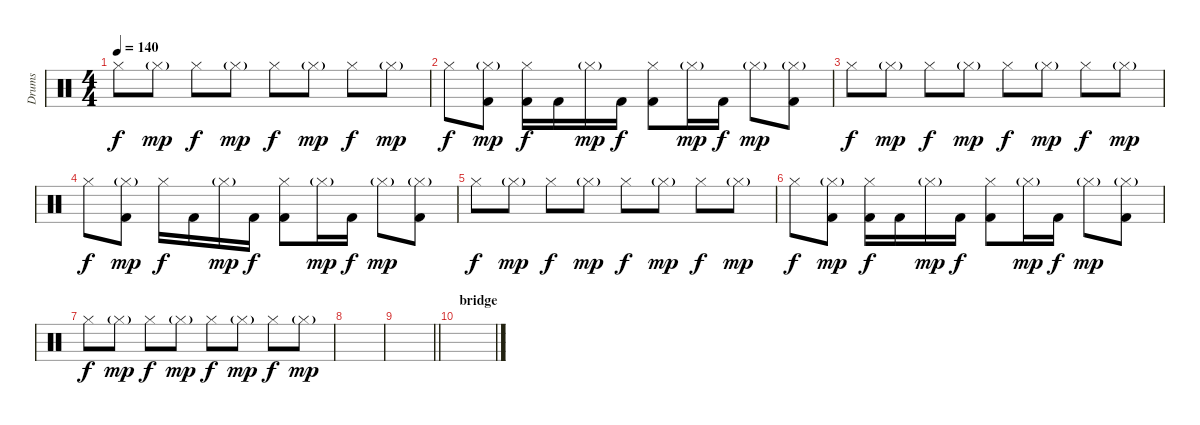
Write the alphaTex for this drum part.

\track ("Drums" "Drums") {instrument percussion}
\staff {score}
\articulation defaults
\ts (4 4)
\tempo 140
\clef neutral
\ks c "Hi-Hat (closed)".8{dy f} "Hi-Hat (closed)"{g}.8{dy mp} "Hi-Hat (closed)".8{dy f} "Hi-Hat (closed)"{g}.8{dy mp} "Hi-Hat (closed)".8{dy f} "Hi-Hat (closed)"{g}.8{dy mp} "Hi-Hat (closed)".8{dy f} "Hi-Hat (closed)"{g}.8{dy mp}
|
"Hi-Hat (closed)".8{dy f} ("Hi-Hat (closed)"{g} "Kick (hit) 2").8{dy mp} ("Hi-Hat (closed)" "Kick (hit) 2").16{dy f} "Kick (hit) 2".16 "Hi-Hat (closed)"{g}.16{dy mp} "Kick (hit) 2".16{dy f} ("Hi-Hat (closed)" "Kick (hit) 2").8 "Hi-Hat (closed)"{g}.16{dy mp} "Kick (hit) 2".16{dy f} "Hi-Hat (closed)"{g}.8{dy mp} ("Hi-Hat (closed)"{g} "Kick (hit) 2").8 |
"Hi-Hat (closed)".8{dy f} "Hi-Hat (closed)"{g}.8{dy mp} "Hi-Hat (closed)".8{dy f} "Hi-Hat (closed)"{g}.8{dy mp} "Hi-Hat (closed)".8{dy f} "Hi-Hat (closed)"{g}.8{dy mp} "Hi-Hat (closed)".8{dy f} "Hi-Hat (closed)"{g}.8{dy mp} |
"Hi-Hat (closed)".8{dy f} ("Hi-Hat (closed)"{g} "Kick (hit) 2").8{dy mp} "Hi-Hat (closed)".16{dy f} "Kick (hit) 2".16 "Hi-Hat (closed)"{g}.16{dy mp} "Kick (hit) 2".16{dy f} ("Hi-Hat (closed)" "Kick (hit) 2").8 "Hi-Hat (closed)"{g}.16{dy mp} "Kick (hit) 2".16{dy f} "Hi-Hat (closed)"{g}.8{dy mp} ("Hi-Hat (closed)"{g} "Kick (hit) 2").8 |
"Hi-Hat (closed)".8{dy f} "Hi-Hat (closed)"{g}.8{dy mp} "Hi-Hat (closed)".8{dy f} "Hi-Hat (closed)"{g}.8{dy mp} "Hi-Hat (closed)".8{dy f} "Hi-Hat (closed)"{g}.8{dy mp} "Hi-Hat (closed)".8{dy f} "Hi-Hat (closed)"{g}.8{dy mp} |
"Hi-Hat (closed)".8{dy f} ("Hi-Hat (closed)"{g} "Kick (hit) 2").8{dy mp} ("Hi-Hat (closed)" "Kick (hit) 2").16{dy f} "Kick (hit) 2".16 "Hi-Hat (closed)"{g}.16{dy mp} "Kick (hit) 2".16{dy f} ("Hi-Hat (closed)" "Kick (hit) 2").8 "Hi-Hat (closed)"{g}.16{dy mp} "Kick (hit) 2".16{dy f} "Hi-Hat (closed)"{g}.8{dy mp} ("Hi-Hat (closed)"{g} "Kick (hit) 2").8 |
"Hi-Hat (closed)".8{dy f} "Hi-Hat (closed)"{g}.8{dy mp} "Hi-Hat (closed)".8{dy f} "Hi-Hat (closed)"{g}.8{dy mp} "Hi-Hat (closed)".8{dy f} "Hi-Hat (closed)"{g}.8{dy mp} "Hi-Hat (closed)".8{dy f} "Hi-Hat (closed)"{g}.8{dy mp} |
|
\barLineRight lightlight
|
\section ("" "bridge")
